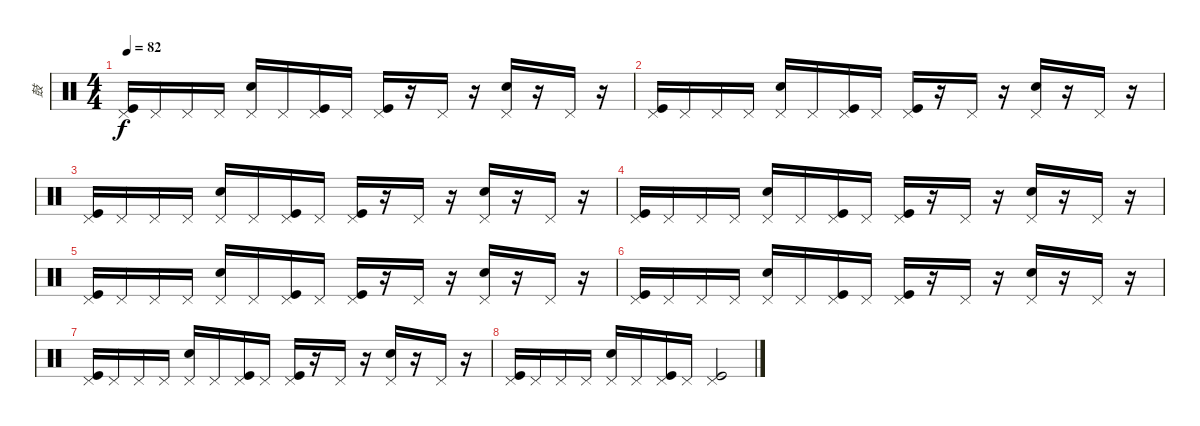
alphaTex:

\track ("鼓" "鼓") {instrument percussion}
\staff {score}
\articulation defaults
\ts (4 4)
\tempo 82
\clef neutral
\ks c
("Pedal Hi-Hat (hit)" "Kick (hit)").16{dy f} "Pedal Hi-Hat (hit)".16 "Pedal Hi-Hat (hit)".16 "Pedal Hi-Hat (hit)".16 ("Pedal Hi-Hat (hit)" "Electric Snare (hit)").16 "Pedal Hi-Hat (hit)".16 ("Pedal Hi-Hat (hit)" "Kick (hit)").16 "Pedal Hi-Hat (hit)".16 ("Pedal Hi-Hat (hit)" "Kick (hit)").16 r.16 "Pedal Hi-Hat (hit)".16 r.16 ("Pedal Hi-Hat (hit)" "Electric Snare (hit)").16 r.16 "Pedal Hi-Hat (hit)".16 r.16 |
("Pedal Hi-Hat (hit)" "Kick (hit)").16 "Pedal Hi-Hat (hit)".16 "Pedal Hi-Hat (hit)".16 "Pedal Hi-Hat (hit)".16 ("Pedal Hi-Hat (hit)" "Electric Snare (hit)").16 "Pedal Hi-Hat (hit)".16 ("Pedal Hi-Hat (hit)" "Kick (hit)").16 "Pedal Hi-Hat (hit)".16 ("Pedal Hi-Hat (hit)" "Kick (hit)").16 r.16 "Pedal Hi-Hat (hit)".16 r.16 ("Pedal Hi-Hat (hit)" "Electric Snare (hit)").16 r.16 "Pedal Hi-Hat (hit)".16 r.16 |
("Pedal Hi-Hat (hit)" "Kick (hit)").16 "Pedal Hi-Hat (hit)".16 "Pedal Hi-Hat (hit)".16 "Pedal Hi-Hat (hit)".16 ("Pedal Hi-Hat (hit)" "Electric Snare (hit)").16 "Pedal Hi-Hat (hit)".16 ("Pedal Hi-Hat (hit)" "Kick (hit)").16 "Pedal Hi-Hat (hit)".16 ("Pedal Hi-Hat (hit)" "Kick (hit)").16 r.16 "Pedal Hi-Hat (hit)".16 r.16 ("Pedal Hi-Hat (hit)" "Electric Snare (hit)").16 r.16 "Pedal Hi-Hat (hit)".16 r.16 |
("Pedal Hi-Hat (hit)" "Kick (hit)").16 "Pedal Hi-Hat (hit)".16 "Pedal Hi-Hat (hit)".16 "Pedal Hi-Hat (hit)".16 ("Pedal Hi-Hat (hit)" "Electric Snare (hit)").16 "Pedal Hi-Hat (hit)".16 ("Pedal Hi-Hat (hit)" "Kick (hit)").16 "Pedal Hi-Hat (hit)".16 ("Pedal Hi-Hat (hit)" "Kick (hit)").16 r.16 "Pedal Hi-Hat (hit)".16 r.16 ("Pedal Hi-Hat (hit)" "Electric Snare (hit)").16 r.16 "Pedal Hi-Hat (hit)".16 r.16 |
("Pedal Hi-Hat (hit)" "Kick (hit)").16 "Pedal Hi-Hat (hit)".16 "Pedal Hi-Hat (hit)".16 "Pedal Hi-Hat (hit)".16 ("Pedal Hi-Hat (hit)" "Electric Snare (hit)").16 "Pedal Hi-Hat (hit)".16 ("Pedal Hi-Hat (hit)" "Kick (hit)").16 "Pedal Hi-Hat (hit)".16 ("Pedal Hi-Hat (hit)" "Kick (hit)").16 r.16 "Pedal Hi-Hat (hit)".16 r.16 ("Pedal Hi-Hat (hit)" "Electric Snare (hit)").16 r.16 "Pedal Hi-Hat (hit)".16 r.16 |
("Pedal Hi-Hat (hit)" "Kick (hit)").16 "Pedal Hi-Hat (hit)".16 "Pedal Hi-Hat (hit)".16 "Pedal Hi-Hat (hit)".16 ("Pedal Hi-Hat (hit)" "Electric Snare (hit)").16 "Pedal Hi-Hat (hit)".16 ("Pedal Hi-Hat (hit)" "Kick (hit)").16 "Pedal Hi-Hat (hit)".16 ("Pedal Hi-Hat (hit)" "Kick (hit)").16 r.16 "Pedal Hi-Hat (hit)".16 r.16 ("Pedal Hi-Hat (hit)" "Electric Snare (hit)").16 r.16 "Pedal Hi-Hat (hit)".16 r.16 |
("Pedal Hi-Hat (hit)" "Kick (hit)").16 "Pedal Hi-Hat (hit)".16 "Pedal Hi-Hat (hit)".16 "Pedal Hi-Hat (hit)".16 ("Pedal Hi-Hat (hit)" "Electric Snare (hit)").16 "Pedal Hi-Hat (hit)".16 ("Pedal Hi-Hat (hit)" "Kick (hit)").16 "Pedal Hi-Hat (hit)".16 ("Pedal Hi-Hat (hit)" "Kick (hit)").16 r.16 "Pedal Hi-Hat (hit)".16 r.16 ("Pedal Hi-Hat (hit)" "Electric Snare (hit)").16 r.16 "Pedal Hi-Hat (hit)".16 r.16 |
("Pedal Hi-Hat (hit)" "Kick (hit)").16 "Pedal Hi-Hat (hit)".16 "Pedal Hi-Hat (hit)".16 "Pedal Hi-Hat (hit)".16 ("Pedal Hi-Hat (hit)" "Electric Snare (hit)").16 "Pedal Hi-Hat (hit)".16 ("Pedal Hi-Hat (hit)" "Kick (hit)").16 "Pedal Hi-Hat (hit)".16 ("Pedal Hi-Hat (hit)" "Kick (hit)").2
